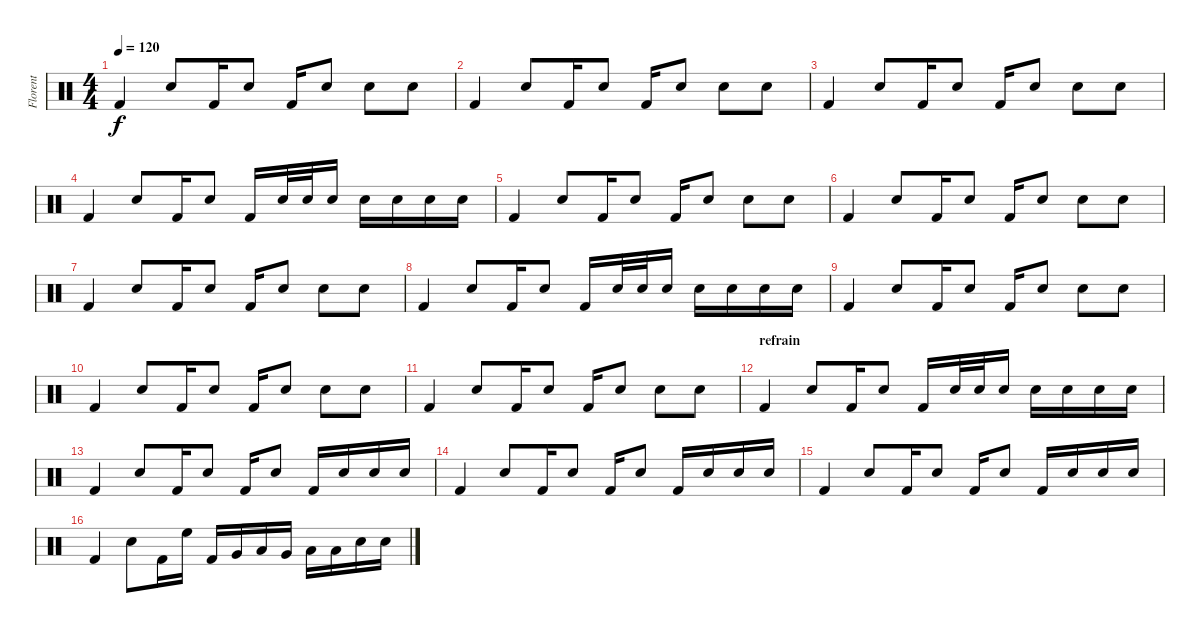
\track ("Florent" "Florent") {instrument percussion}
\staff {score}
\articulation defaults
\ts (4 4)
\tempo 120
\clef neutral
\ks c "Kick (hit) 2".4{dy f} "Electric Snare (hit)".8 "Kick (hit) 2".16 "Electric Snare (hit)".8 "Kick (hit) 2".16 "Electric Snare (hit)".8 "Electric Snare (hit)".8 "Electric Snare (hit)".8
|
"Kick (hit) 2".4 "Electric Snare (hit)".8 "Kick (hit) 2".16 "Electric Snare (hit)".8 "Kick (hit) 2".16 "Electric Snare (hit)".8 "Electric Snare (hit)".8 "Electric Snare (hit)".8 |
"Kick (hit) 2".4 "Electric Snare (hit)".8 "Kick (hit) 2".16 "Electric Snare (hit)".8 "Kick (hit) 2".16 "Electric Snare (hit)".8 "Electric Snare (hit)".8 "Electric Snare (hit)".8 |
"Kick (hit) 2".4 "Electric Snare (hit)".8 "Kick (hit) 2".16 "Electric Snare (hit)".8 "Kick (hit) 2".16 "Electric Snare (hit)".32 "Electric Snare (hit)".32 "Electric Snare (hit)".16 "Electric Snare (hit)".16 "Electric Snare (hit)".16 "Electric Snare (hit)".16 "Electric Snare (hit)".16 |
"Kick (hit) 2".4 "Electric Snare (hit)".8 "Kick (hit) 2".16 "Electric Snare (hit)".8 "Kick (hit) 2".16 "Electric Snare (hit)".8 "Electric Snare (hit)".8 "Electric Snare (hit)".8 |
"Kick (hit) 2".4 "Electric Snare (hit)".8 "Kick (hit) 2".16 "Electric Snare (hit)".8 "Kick (hit) 2".16 "Electric Snare (hit)".8 "Electric Snare (hit)".8 "Electric Snare (hit)".8 |
"Kick (hit) 2".4 "Electric Snare (hit)".8 "Kick (hit) 2".16 "Electric Snare (hit)".8 "Kick (hit) 2".16 "Electric Snare (hit)".8 "Electric Snare (hit)".8 "Electric Snare (hit)".8 |
"Kick (hit) 2".4 "Electric Snare (hit)".8 "Kick (hit) 2".16 "Electric Snare (hit)".8 "Kick (hit) 2".16 "Electric Snare (hit)".32 "Electric Snare (hit)".32 "Electric Snare (hit)".16 "Electric Snare (hit)".16 "Electric Snare (hit)".16 "Electric Snare (hit)".16 "Electric Snare (hit)".16 |
"Kick (hit) 2".4 "Electric Snare (hit)".8 "Kick (hit) 2".16 "Electric Snare (hit)".8 "Kick (hit) 2".16 "Electric Snare (hit)".8 "Electric Snare (hit)".8 "Electric Snare (hit)".8 |
"Kick (hit) 2".4 "Electric Snare (hit)".8 "Kick (hit) 2".16 "Electric Snare (hit)".8 "Kick (hit) 2".16 "Electric Snare (hit)".8 "Electric Snare (hit)".8 "Electric Snare (hit)".8 |
"Kick (hit) 2".4 "Electric Snare (hit)".8 "Kick (hit) 2".16 "Electric Snare (hit)".8 "Kick (hit) 2".16 "Electric Snare (hit)".8 "Electric Snare (hit)".8 "Electric Snare (hit)".8 |
\section ("" "refrain ")
"Kick (hit) 2".4 "Electric Snare (hit)".8 "Kick (hit) 2".16 "Electric Snare (hit)".8 "Kick (hit) 2".16 "Electric Snare (hit)".32 "Electric Snare (hit)".32 "Electric Snare (hit)".16 "Electric Snare (hit)".16 "Electric Snare (hit)".16 "Electric Snare (hit)".16 "Electric Snare (hit)".16 |
"Kick (hit) 2".4 "Electric Snare (hit)".8 "Kick (hit) 2".16 "Electric Snare (hit)".8 "Kick (hit) 2".16 "Electric Snare (hit)".8 "Kick (hit) 2".16 "Electric Snare (hit)".16 "Electric Snare (hit)".16 "Electric Snare (hit)".16 |
"Kick (hit) 2".4 "Electric Snare (hit)".8 "Kick (hit) 2".16 "Electric Snare (hit)".8 "Kick (hit) 2".16 "Electric Snare (hit)".8 "Kick (hit) 2".16 "Electric Snare (hit)".16 "Electric Snare (hit)".16 "Electric Snare (hit)".16 |
"Kick (hit) 2".4 "Electric Snare (hit)".8 "Kick (hit) 2".16 "Electric Snare (hit)".8 "Kick (hit) 2".16 "Electric Snare (hit)".8 "Kick (hit) 2".16 "Electric Snare (hit)".16 "Electric Snare (hit)".16 "Electric Snare (hit)".16 |
"Kick (hit) 2".4 "Electric Snare (hit)".8 "Kick (hit) 2".16 "High Floor Tom (hit)".16 "Kick (hit) 2".16 "Very Low Tom (hit)".16 "Low Tom (hit)".16 "Very Low Tom (hit)".16 "Low Tom (hit)".16 "Low Tom (hit)".16 "Electric Snare (hit)".16 "Electric Snare (hit)".16
